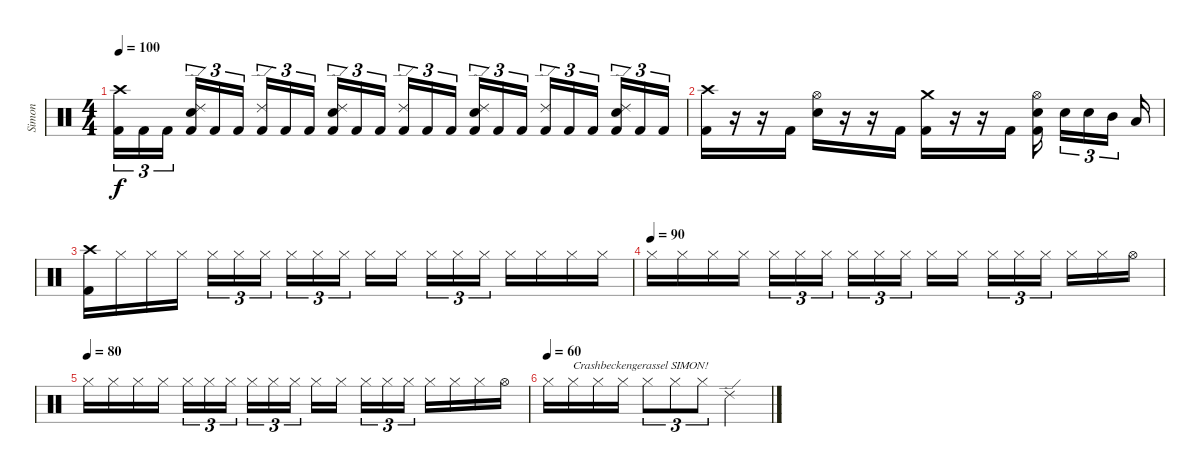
\track ("Simon" "Simon") {instrument percussion}
\staff {score}
\articulation defaults
\ts (4 4)
\tempo 100
\clef neutral
\ks c
("Crash high (hit)" "Kick (hit) 2").16{tu (3 2) dy f} "Kick (hit) 2".16{tu (3 2)} "Kick (hit) 2".16{tu (3 2) beam splitsecondary} ("Ride (edge) 2" "Electric Snare (hit)" "Kick (hit) 2").16{tu (3 2)} "Kick (hit) 2".16{tu (3 2)} "Kick (hit) 2".16{tu (3 2)} ("Ride (edge) 2" "Kick (hit) 2").16{tu (3 2)} "Kick (hit) 2".16{tu (3 2)} "Kick (hit) 2".16{tu (3 2) beam splitsecondary} ("Ride (edge) 2" "Electric Snare (hit)" "Kick (hit) 2").16{tu (3 2)} "Kick (hit) 2".16{tu (3 2)} "Kick (hit) 2".16{tu (3 2)} ("Ride (edge) 2" "Kick (hit) 2").16{tu (3 2)} "Kick (hit) 2".16{tu (3 2)} "Kick (hit) 2".16{tu (3 2) beam splitsecondary} ("Ride (edge) 2" "Electric Snare (hit)" "Kick (hit) 2").16{tu (3 2)} "Kick (hit) 2".16{tu (3 2)} "Kick (hit) 2".16{tu (3 2)} ("Ride (edge) 2" "Kick (hit) 2").16{tu (3 2)} "Kick (hit) 2".16{tu (3 2)} "Kick (hit) 2".16{tu (3 2) beam splitsecondary} ("Ride (edge) 2" "Electric Snare (hit)" "Kick (hit) 2").16{tu (3 2)} "Kick (hit) 2".16{tu (3 2)} "Kick (hit) 2".16{tu (3 2)} |
("Crash high (hit)" "Kick (hit) 2").16 r.16 r.16 "Kick (hit) 2".16 ("Hi-Hat (open)" "Electric Snare (hit)").16 r.16 r.16 "Kick (hit) 2".16 ("Crash medium (hit)" "Kick (hit) 2").16 r.16 r.16 "Kick (hit) 2".16 ("Hi-Hat (open)" "Electric Snare (hit)" "Kick (hit) 2").16{beam splitsecondary} "Electric Snare (hit)".16{tu (3 2)} "Electric Snare (hit)".16{tu (3 2)} "Mid Tom (hit)".16{tu (3 2) beam splitsecondary} "Low Tom (hit)".16 |
("Crash high (hit)" "Kick (hit) 2").16 "Hi-Hat (closed)".16 "Hi-Hat (closed)".16 "Hi-Hat (closed)".16 "Hi-Hat (closed)".16{tu (3 2)} "Hi-Hat (closed)".16{tu (3 2)} "Hi-Hat (closed)".16{tu (3 2) beam splitsecondary} "Hi-Hat (closed)".16{tu (3 2)} "Hi-Hat (closed)".16{tu (3 2)} "Hi-Hat (closed)".16{tu (3 2)} "Hi-Hat (closed)".16 "Hi-Hat (closed)".16{beam splitsecondary} "Hi-Hat (closed)".16{tu (3 2)} "Hi-Hat (closed)".16{tu (3 2)} "Hi-Hat (closed)".16{tu (3 2)} "Hi-Hat (closed)".16 "Hi-Hat (closed)".16 "Hi-Hat (closed)".16 "Hi-Hat (closed)".16 |
\tempo (90)
"Hi-Hat (closed)".16 "Hi-Hat (closed)".16 "Hi-Hat (closed)".16 "Hi-Hat (closed)".16 "Hi-Hat (closed)".16{tu (3 2)} "Hi-Hat (closed)".16{tu (3 2)} "Hi-Hat (closed)".16{tu (3 2) beam splitsecondary} "Hi-Hat (closed)".16{tu (3 2)} "Hi-Hat (closed)".16{tu (3 2)} "Hi-Hat (closed)".16{tu (3 2)} "Hi-Hat (closed)".16 "Hi-Hat (closed)".16{beam splitsecondary} "Hi-Hat (closed)".16{tu (3 2)} "Hi-Hat (closed)".16{tu (3 2)} "Hi-Hat (closed)".16{tu (3 2)} "Hi-Hat (closed)".16 "Hi-Hat (closed)".16 "Hi-Hat (open)".16 |
\tempo (80)
"Hi-Hat (closed)".16 "Hi-Hat (closed)".16 "Hi-Hat (closed)".16 "Hi-Hat (closed)".16 "Hi-Hat (closed)".16{tu (3 2)} "Hi-Hat (closed)".16{tu (3 2)} "Hi-Hat (closed)".16{tu (3 2) beam splitsecondary} "Hi-Hat (closed)".16{tu (3 2)} "Hi-Hat (closed)".16{tu (3 2)} "Hi-Hat (closed)".16{tu (3 2)} "Hi-Hat (closed)".16 "Hi-Hat (closed)".16{beam splitsecondary} "Hi-Hat (closed)".16{tu (3 2)} "Hi-Hat (closed)".16{tu (3 2)} "Hi-Hat (closed)".16{tu (3 2)} "Hi-Hat (closed)".16 "Hi-Hat (closed)".16 "Hi-Hat (closed)".16 "Hi-Hat (open)".16 |
\tempo (60)
"Hi-Hat (closed)".16 "Hi-Hat (closed)".16{txt "Crashbeckengerassel SIMON!"} "Hi-Hat (closed)".16 "Hi-Hat (closed)".16 "Hi-Hat (closed)".8{tu (3 2)} "Hi-Hat (closed)".8{tu (3 2)} "Hi-Hat (closed)".8{tu (3 2)} "Ride (edge) 2".2
